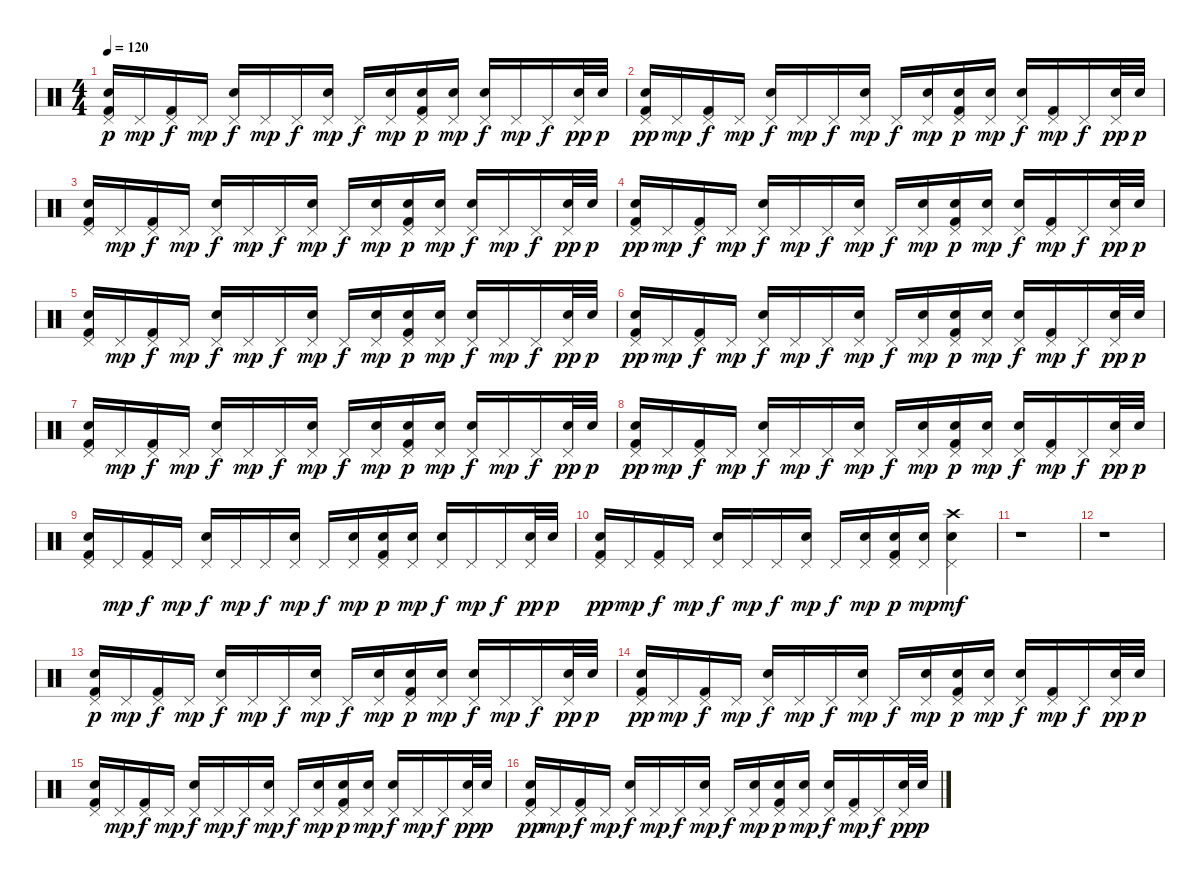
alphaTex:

\track "" {instrument percussion}
\staff {score}
\articulation defaults
\ts (4 4)
\tempo 120
\clef neutral
\ks c
("Pedal Hi-Hat (hit)" "Electric Snare (hit)" "Kick (hit) 2").16{dy p} "Pedal Hi-Hat (hit)".16{dy mp} ("Pedal Hi-Hat (hit)" "Kick (hit) 2").16{dy f} "Pedal Hi-Hat (hit)".16{dy mp} ("Pedal Hi-Hat (hit)" "Electric Snare (hit)").16{dy f} "Pedal Hi-Hat (hit)".16{dy mp} "Pedal Hi-Hat (hit)".16{dy f} ("Pedal Hi-Hat (hit)" "Electric Snare (hit)").16{dy mp} "Pedal Hi-Hat (hit)".16{dy f} ("Pedal Hi-Hat (hit)" "Electric Snare (hit)").16{dy mp} ("Pedal Hi-Hat (hit)" "Electric Snare (hit)" "Kick (hit) 2").16{dy p} ("Pedal Hi-Hat (hit)" "Electric Snare (hit)").16{dy mp} ("Pedal Hi-Hat (hit)" "Electric Snare (hit)").16{dy f} "Pedal Hi-Hat (hit)".16{dy mp} "Pedal Hi-Hat (hit)".16{dy f} ("Pedal Hi-Hat (hit)" "Electric Snare (hit)").32{dy pp} "Electric Snare (hit)".32{dy p} |
("Pedal Hi-Hat (hit)" "Electric Snare (hit)" "Kick (hit) 2").16{dy pp} "Pedal Hi-Hat (hit)".16{dy mp} ("Pedal Hi-Hat (hit)" "Kick (hit) 2").16{dy f} "Pedal Hi-Hat (hit)".16{dy mp} ("Pedal Hi-Hat (hit)" "Electric Snare (hit)").16{dy f} "Pedal Hi-Hat (hit)".16{dy mp} "Pedal Hi-Hat (hit)".16{dy f} ("Pedal Hi-Hat (hit)" "Electric Snare (hit)").16{dy mp} "Pedal Hi-Hat (hit)".16{dy f} ("Pedal Hi-Hat (hit)" "Electric Snare (hit)").16{dy mp} ("Pedal Hi-Hat (hit)" "Electric Snare (hit)" "Kick (hit) 2").16{dy p} ("Pedal Hi-Hat (hit)" "Electric Snare (hit)").16{dy mp} ("Pedal Hi-Hat (hit)" "Electric Snare (hit)").16{dy f} ("Pedal Hi-Hat (hit)" "Kick (hit) 2").16{dy mp} "Pedal Hi-Hat (hit)".16{dy f} ("Pedal Hi-Hat (hit)" "Electric Snare (hit)").32{dy pp} "Electric Snare (hit)".32{dy p} |
("Pedal Hi-Hat (hit)" "Electric Snare (hit)" "Kick (hit) 2").16 "Pedal Hi-Hat (hit)".16{dy mp} ("Pedal Hi-Hat (hit)" "Kick (hit) 2").16{dy f} "Pedal Hi-Hat (hit)".16{dy mp} ("Pedal Hi-Hat (hit)" "Electric Snare (hit)").16{dy f} "Pedal Hi-Hat (hit)".16{dy mp} "Pedal Hi-Hat (hit)".16{dy f} ("Pedal Hi-Hat (hit)" "Electric Snare (hit)").16{dy mp} "Pedal Hi-Hat (hit)".16{dy f} ("Pedal Hi-Hat (hit)" "Electric Snare (hit)").16{dy mp} ("Pedal Hi-Hat (hit)" "Electric Snare (hit)" "Kick (hit) 2").16{dy p} ("Pedal Hi-Hat (hit)" "Electric Snare (hit)").16{dy mp} ("Pedal Hi-Hat (hit)" "Electric Snare (hit)").16{dy f} "Pedal Hi-Hat (hit)".16{dy mp} "Pedal Hi-Hat (hit)".16{dy f} ("Pedal Hi-Hat (hit)" "Electric Snare (hit)").32{dy pp} "Electric Snare (hit)".32{dy p} |
("Pedal Hi-Hat (hit)" "Electric Snare (hit)" "Kick (hit) 2").16{dy pp} "Pedal Hi-Hat (hit)".16{dy mp} ("Pedal Hi-Hat (hit)" "Kick (hit) 2").16{dy f} "Pedal Hi-Hat (hit)".16{dy mp} ("Pedal Hi-Hat (hit)" "Electric Snare (hit)").16{dy f} "Pedal Hi-Hat (hit)".16{dy mp} "Pedal Hi-Hat (hit)".16{dy f} ("Pedal Hi-Hat (hit)" "Electric Snare (hit)").16{dy mp} "Pedal Hi-Hat (hit)".16{dy f} ("Pedal Hi-Hat (hit)" "Electric Snare (hit)").16{dy mp} ("Pedal Hi-Hat (hit)" "Electric Snare (hit)" "Kick (hit) 2").16{dy p} ("Pedal Hi-Hat (hit)" "Electric Snare (hit)").16{dy mp} ("Pedal Hi-Hat (hit)" "Electric Snare (hit)").16{dy f} ("Pedal Hi-Hat (hit)" "Kick (hit) 2").16{dy mp} "Pedal Hi-Hat (hit)".16{dy f} ("Pedal Hi-Hat (hit)" "Electric Snare (hit)").32{dy pp} "Electric Snare (hit)".32{dy p} |
("Pedal Hi-Hat (hit)" "Electric Snare (hit)" "Kick (hit) 2").16 "Pedal Hi-Hat (hit)".16{dy mp} ("Pedal Hi-Hat (hit)" "Kick (hit) 2").16{dy f} "Pedal Hi-Hat (hit)".16{dy mp} ("Pedal Hi-Hat (hit)" "Electric Snare (hit)").16{dy f} "Pedal Hi-Hat (hit)".16{dy mp} "Pedal Hi-Hat (hit)".16{dy f} ("Pedal Hi-Hat (hit)" "Electric Snare (hit)").16{dy mp} "Pedal Hi-Hat (hit)".16{dy f} ("Pedal Hi-Hat (hit)" "Electric Snare (hit)").16{dy mp} ("Pedal Hi-Hat (hit)" "Electric Snare (hit)" "Kick (hit) 2").16{dy p} ("Pedal Hi-Hat (hit)" "Electric Snare (hit)").16{dy mp} ("Pedal Hi-Hat (hit)" "Electric Snare (hit)").16{dy f} "Pedal Hi-Hat (hit)".16{dy mp} "Pedal Hi-Hat (hit)".16{dy f} ("Pedal Hi-Hat (hit)" "Electric Snare (hit)").32{dy pp} "Electric Snare (hit)".32{dy p} |
("Pedal Hi-Hat (hit)" "Electric Snare (hit)" "Kick (hit) 2").16{dy pp} "Pedal Hi-Hat (hit)".16{dy mp} ("Pedal Hi-Hat (hit)" "Kick (hit) 2").16{dy f} "Pedal Hi-Hat (hit)".16{dy mp} ("Pedal Hi-Hat (hit)" "Electric Snare (hit)").16{dy f} "Pedal Hi-Hat (hit)".16{dy mp} "Pedal Hi-Hat (hit)".16{dy f} ("Pedal Hi-Hat (hit)" "Electric Snare (hit)").16{dy mp} "Pedal Hi-Hat (hit)".16{dy f} ("Pedal Hi-Hat (hit)" "Electric Snare (hit)").16{dy mp} ("Pedal Hi-Hat (hit)" "Electric Snare (hit)" "Kick (hit) 2").16{dy p} ("Pedal Hi-Hat (hit)" "Electric Snare (hit)").16{dy mp} ("Pedal Hi-Hat (hit)" "Electric Snare (hit)").16{dy f} ("Pedal Hi-Hat (hit)" "Kick (hit) 2").16{dy mp} "Pedal Hi-Hat (hit)".16{dy f} ("Pedal Hi-Hat (hit)" "Electric Snare (hit)").32{dy pp} "Electric Snare (hit)".32{dy p} |
("Pedal Hi-Hat (hit)" "Electric Snare (hit)" "Kick (hit) 2").16 "Pedal Hi-Hat (hit)".16{dy mp} ("Pedal Hi-Hat (hit)" "Kick (hit) 2").16{dy f} "Pedal Hi-Hat (hit)".16{dy mp} ("Pedal Hi-Hat (hit)" "Electric Snare (hit)").16{dy f} "Pedal Hi-Hat (hit)".16{dy mp} "Pedal Hi-Hat (hit)".16{dy f} ("Pedal Hi-Hat (hit)" "Electric Snare (hit)").16{dy mp} "Pedal Hi-Hat (hit)".16{dy f} ("Pedal Hi-Hat (hit)" "Electric Snare (hit)").16{dy mp} ("Pedal Hi-Hat (hit)" "Electric Snare (hit)" "Kick (hit) 2").16{dy p} ("Pedal Hi-Hat (hit)" "Electric Snare (hit)").16{dy mp} ("Pedal Hi-Hat (hit)" "Electric Snare (hit)").16{dy f} "Pedal Hi-Hat (hit)".16{dy mp} "Pedal Hi-Hat (hit)".16{dy f} ("Pedal Hi-Hat (hit)" "Electric Snare (hit)").32{dy pp} "Electric Snare (hit)".32{dy p} |
("Pedal Hi-Hat (hit)" "Electric Snare (hit)" "Kick (hit) 2").16{dy pp} "Pedal Hi-Hat (hit)".16{dy mp} ("Pedal Hi-Hat (hit)" "Kick (hit) 2").16{dy f} "Pedal Hi-Hat (hit)".16{dy mp} ("Pedal Hi-Hat (hit)" "Electric Snare (hit)").16{dy f} "Pedal Hi-Hat (hit)".16{dy mp} "Pedal Hi-Hat (hit)".16{dy f} ("Pedal Hi-Hat (hit)" "Electric Snare (hit)").16{dy mp} "Pedal Hi-Hat (hit)".16{dy f} ("Pedal Hi-Hat (hit)" "Electric Snare (hit)").16{dy mp} ("Pedal Hi-Hat (hit)" "Electric Snare (hit)" "Kick (hit) 2").16{dy p} ("Pedal Hi-Hat (hit)" "Electric Snare (hit)").16{dy mp} ("Pedal Hi-Hat (hit)" "Electric Snare (hit)").16{dy f} ("Pedal Hi-Hat (hit)" "Kick (hit) 2").16{dy mp} "Pedal Hi-Hat (hit)".16{dy f} ("Pedal Hi-Hat (hit)" "Electric Snare (hit)").32{dy pp} "Electric Snare (hit)".32{dy p} |
("Pedal Hi-Hat (hit)" "Electric Snare (hit)" "Kick (hit) 2").16 "Pedal Hi-Hat (hit)".16{dy mp} ("Pedal Hi-Hat (hit)" "Kick (hit) 2").16{dy f} "Pedal Hi-Hat (hit)".16{dy mp} ("Pedal Hi-Hat (hit)" "Electric Snare (hit)").16{dy f} "Pedal Hi-Hat (hit)".16{dy mp} "Pedal Hi-Hat (hit)".16{dy f} ("Pedal Hi-Hat (hit)" "Electric Snare (hit)").16{dy mp} "Pedal Hi-Hat (hit)".16{dy f} ("Pedal Hi-Hat (hit)" "Electric Snare (hit)").16{dy mp} ("Pedal Hi-Hat (hit)" "Electric Snare (hit)" "Kick (hit) 2").16{dy p} ("Pedal Hi-Hat (hit)" "Electric Snare (hit)").16{dy mp} ("Pedal Hi-Hat (hit)" "Electric Snare (hit)").16{dy f} "Pedal Hi-Hat (hit)".16{dy mp} "Pedal Hi-Hat (hit)".16{dy f} ("Pedal Hi-Hat (hit)" "Electric Snare (hit)").32{dy pp} "Electric Snare (hit)".32{dy p} |
("Pedal Hi-Hat (hit)" "Electric Snare (hit)" "Kick (hit) 2").16{dy pp} "Pedal Hi-Hat (hit)".16{dy mp} ("Pedal Hi-Hat (hit)" "Kick (hit) 2").16{dy f} "Pedal Hi-Hat (hit)".16{dy mp} ("Pedal Hi-Hat (hit)" "Electric Snare (hit)").16{dy f} "Pedal Hi-Hat (hit)".16{dy mp} "Pedal Hi-Hat (hit)".16{dy f} ("Pedal Hi-Hat (hit)" "Electric Snare (hit)").16{dy mp} "Pedal Hi-Hat (hit)".16{dy f} ("Pedal Hi-Hat (hit)" "Electric Snare (hit)").16{dy mp} ("Pedal Hi-Hat (hit)" "Electric Snare (hit)" "Kick (hit) 2").16{dy p} ("Pedal Hi-Hat (hit)" "Electric Snare (hit)").16{dy mp} ("Pedal Hi-Hat (hit)" "Crash high (hit)" "Electric Snare (hit)").4{dy mf} |
r.1 |
r.1 |
("Pedal Hi-Hat (hit)" "Electric Snare (hit)" "Kick (hit) 2").16{dy p} "Pedal Hi-Hat (hit)".16{dy mp} ("Pedal Hi-Hat (hit)" "Kick (hit) 2").16{dy f} "Pedal Hi-Hat (hit)".16{dy mp} ("Pedal Hi-Hat (hit)" "Electric Snare (hit)").16{dy f} "Pedal Hi-Hat (hit)".16{dy mp} "Pedal Hi-Hat (hit)".16{dy f} ("Pedal Hi-Hat (hit)" "Electric Snare (hit)").16{dy mp} "Pedal Hi-Hat (hit)".16{dy f} ("Pedal Hi-Hat (hit)" "Electric Snare (hit)").16{dy mp} ("Pedal Hi-Hat (hit)" "Electric Snare (hit)" "Kick (hit) 2").16{dy p} ("Pedal Hi-Hat (hit)" "Electric Snare (hit)").16{dy mp} ("Pedal Hi-Hat (hit)" "Electric Snare (hit)").16{dy f} "Pedal Hi-Hat (hit)".16{dy mp} "Pedal Hi-Hat (hit)".16{dy f} ("Pedal Hi-Hat (hit)" "Electric Snare (hit)").32{dy pp} "Electric Snare (hit)".32{dy p} |
("Pedal Hi-Hat (hit)" "Electric Snare (hit)" "Kick (hit) 2").16{dy pp} "Pedal Hi-Hat (hit)".16{dy mp} ("Pedal Hi-Hat (hit)" "Kick (hit) 2").16{dy f} "Pedal Hi-Hat (hit)".16{dy mp} ("Pedal Hi-Hat (hit)" "Electric Snare (hit)").16{dy f} "Pedal Hi-Hat (hit)".16{dy mp} "Pedal Hi-Hat (hit)".16{dy f} ("Pedal Hi-Hat (hit)" "Electric Snare (hit)").16{dy mp} "Pedal Hi-Hat (hit)".16{dy f} ("Pedal Hi-Hat (hit)" "Electric Snare (hit)").16{dy mp} ("Pedal Hi-Hat (hit)" "Electric Snare (hit)" "Kick (hit) 2").16{dy p} ("Pedal Hi-Hat (hit)" "Electric Snare (hit)").16{dy mp} ("Pedal Hi-Hat (hit)" "Electric Snare (hit)").16{dy f} ("Pedal Hi-Hat (hit)" "Kick (hit) 2").16{dy mp} "Pedal Hi-Hat (hit)".16{dy f} ("Pedal Hi-Hat (hit)" "Electric Snare (hit)").32{dy pp} "Electric Snare (hit)".32{dy p} |
("Pedal Hi-Hat (hit)" "Electric Snare (hit)" "Kick (hit) 2").16 "Pedal Hi-Hat (hit)".16{dy mp} ("Pedal Hi-Hat (hit)" "Kick (hit) 2").16{dy f} "Pedal Hi-Hat (hit)".16{dy mp} ("Pedal Hi-Hat (hit)" "Electric Snare (hit)").16{dy f} "Pedal Hi-Hat (hit)".16{dy mp} "Pedal Hi-Hat (hit)".16{dy f} ("Pedal Hi-Hat (hit)" "Electric Snare (hit)").16{dy mp} "Pedal Hi-Hat (hit)".16{dy f} ("Pedal Hi-Hat (hit)" "Electric Snare (hit)").16{dy mp} ("Pedal Hi-Hat (hit)" "Electric Snare (hit)" "Kick (hit) 2").16{dy p} ("Pedal Hi-Hat (hit)" "Electric Snare (hit)").16{dy mp} ("Pedal Hi-Hat (hit)" "Electric Snare (hit)").16{dy f} "Pedal Hi-Hat (hit)".16{dy mp} "Pedal Hi-Hat (hit)".16{dy f} ("Pedal Hi-Hat (hit)" "Electric Snare (hit)").32{dy pp} "Electric Snare (hit)".32{dy p} |
("Pedal Hi-Hat (hit)" "Electric Snare (hit)" "Kick (hit) 2").16{dy pp} "Pedal Hi-Hat (hit)".16{dy mp} ("Pedal Hi-Hat (hit)" "Kick (hit) 2").16{dy f} "Pedal Hi-Hat (hit)".16{dy mp} ("Pedal Hi-Hat (hit)" "Electric Snare (hit)").16{dy f} "Pedal Hi-Hat (hit)".16{dy mp} "Pedal Hi-Hat (hit)".16{dy f} ("Pedal Hi-Hat (hit)" "Electric Snare (hit)").16{dy mp} "Pedal Hi-Hat (hit)".16{dy f} ("Pedal Hi-Hat (hit)" "Electric Snare (hit)").16{dy mp} ("Pedal Hi-Hat (hit)" "Electric Snare (hit)" "Kick (hit) 2").16{dy p} ("Pedal Hi-Hat (hit)" "Electric Snare (hit)").16{dy mp} ("Pedal Hi-Hat (hit)" "Electric Snare (hit)").16{dy f} ("Pedal Hi-Hat (hit)" "Kick (hit) 2").16{dy mp} "Pedal Hi-Hat (hit)".16{dy f} ("Pedal Hi-Hat (hit)" "Electric Snare (hit)").32{dy pp} "Electric Snare (hit)".32{dy p}
